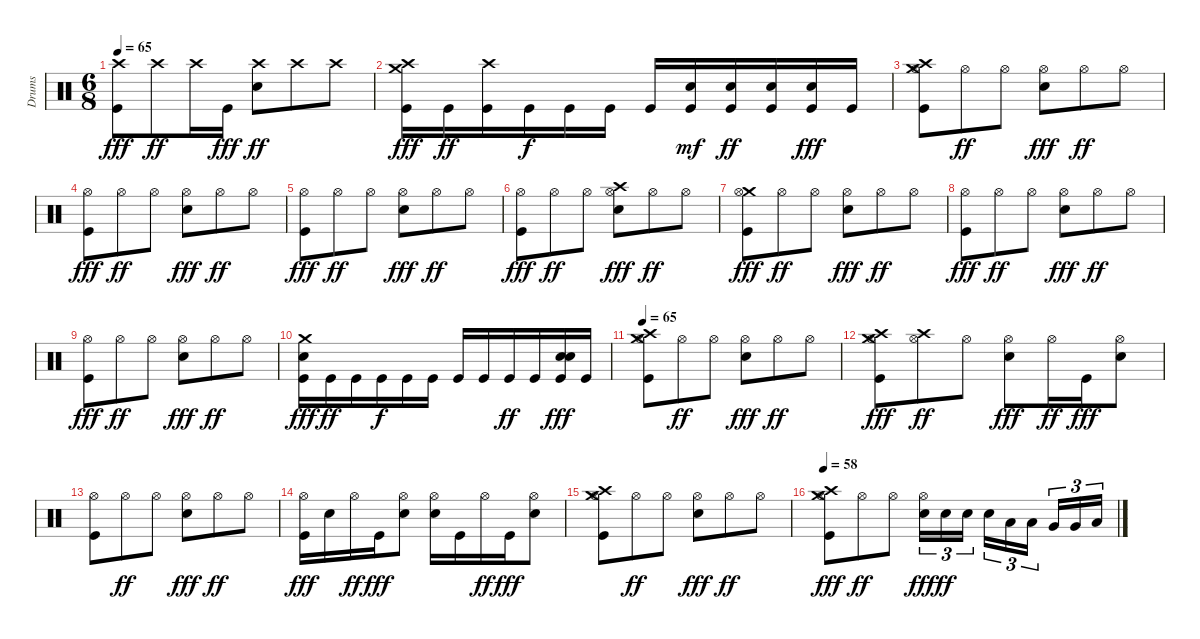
\track ("Drums" "Drums") {instrument percussion}
\staff {score}
\articulation defaults
\ts (6 8)
\tempo 65
\clef neutral
\ks c
("Crash high (hit)" "Kick (hit)").8{dy fff} "Crash high (hit)".8{dy ff} "Crash high (hit)".16 "Kick (hit)".16{dy fff} ("Crash high (hit)" "Snare (hit) 2").8{dy ff} "Crash high (hit)".8 "Crash high (hit)".8 |
("Crash medium (hit)" "Crash high (hit)" "Kick (hit)").16{dy fff} "Kick (hit)".16{dy ff} ("Crash high (hit)" "Kick (hit)").16 "Kick (hit)".16{dy f} "Kick (hit)".16 "Kick (hit)".16 "Kick (hit)".16 ("Snare (hit) 2" "Kick (hit)").16{dy mf} ("Snare (hit) 2" "Kick (hit)").16{dy ff} ("Snare (hit) 2" "Kick (hit)").16 ("Snare (hit) 2" "Kick (hit)").16{dy fff} "Kick (hit)".16 |
("Crash medium (hit)" "Crash high (hit)" "Hi-Hat (open)" "Kick (hit)").8 "Hi-Hat (open)".8{dy ff} "Hi-Hat (open)".8 ("Hi-Hat (open)" "Snare (hit) 2").8{dy fff} "Hi-Hat (open)".8{dy ff} "Hi-Hat (open)".8 |
("Hi-Hat (open)" "Kick (hit)").8{dy fff} "Hi-Hat (open)".8{dy ff} "Hi-Hat (open)".8 ("Hi-Hat (open)" "Snare (hit) 2").8{dy fff} "Hi-Hat (open)".8{dy ff} "Hi-Hat (open)".8 |
("Hi-Hat (open)" "Kick (hit)").8{dy fff} "Hi-Hat (open)".8{dy ff} "Hi-Hat (open)".8 ("Hi-Hat (open)" "Snare (hit) 2").8{dy fff} "Hi-Hat (open)".8{dy ff} "Hi-Hat (open)".8 |
("Hi-Hat (open)" "Kick (hit)").8{dy fff} "Hi-Hat (open)".8{dy ff} "Hi-Hat (open)".8 ("Crash high (hit)" "Hi-Hat (open)" "Snare (hit) 2").8{dy fff} "Hi-Hat (open)".8{dy ff} "Hi-Hat (open)".8 |
("Crash medium (hit)" "Hi-Hat (open)" "Kick (hit)").8{dy fff} "Hi-Hat (open)".8{dy ff} "Hi-Hat (open)".8 ("Hi-Hat (open)" "Snare (hit) 2").8{dy fff} "Hi-Hat (open)".8{dy ff} "Hi-Hat (open)".8 |
("Hi-Hat (open)" "Kick (hit)").8{dy fff} "Hi-Hat (open)".8{dy ff} "Hi-Hat (open)".8 ("Hi-Hat (open)" "Snare (hit) 2").8{dy fff} "Hi-Hat (open)".8{dy ff} "Hi-Hat (open)".8 |
("Hi-Hat (open)" "Kick (hit)").8{dy fff} "Hi-Hat (open)".8{dy ff} "Hi-Hat (open)".8 ("Hi-Hat (open)" "Snare (hit) 2").8{dy fff} "Hi-Hat (open)".8{dy ff} "Hi-Hat (open)".8 |
("Crash medium (hit)" "Snare (hit) 2" "Kick (hit)").16{dy fff} "Kick (hit)".16{dy ff} "Kick (hit)".16 "Kick (hit)".16{dy f} "Kick (hit)".16 "Kick (hit)".16 "Kick (hit)".16 "Kick (hit)".16 "Kick (hit)".16{dy ff} "Kick (hit)".16 ("Snare (hit) 2" "Snare (hit) 2" "Kick (hit)").16{dy fff} "Kick (hit)".16 |
\tempo 65
("Crash medium (hit)" "Crash high (hit)" "Hi-Hat (open)" "Kick (hit)").8 "Hi-Hat (open)".8{dy ff} "Hi-Hat (open)".8 ("Hi-Hat (open)" "Snare (hit) 2").8{dy fff} "Hi-Hat (open)".8{dy ff} "Hi-Hat (open)".8 |
("Crash medium (hit)" "Crash high (hit)" "Hi-Hat (open)" "Kick (hit)").8{dy fff} ("Hi-Hat (open)" "Crash high (hit)").8{dy ff} "Hi-Hat (open)".8 ("Hi-Hat (open)" "Snare (hit) 2").8{dy fff} "Hi-Hat (open)".16{dy ff} "Kick (hit)".16{dy fff} ("Hi-Hat (open)" "Snare (hit) 2").8 |
("Hi-Hat (open)" "Kick (hit)").8 "Hi-Hat (open)".8{dy ff} "Hi-Hat (open)".8 ("Hi-Hat (open)" "Snare (hit) 2").8{dy fff} "Hi-Hat (open)".8{dy ff} "Hi-Hat (open)".8 |
("Hi-Hat (open)" "Kick (hit)").16{dy fff} "Snare (hit) 2".16 "Hi-Hat (open)".16{dy ff} "Kick (hit)".16{dy fff} ("Hi-Hat (open)" "Snare (hit) 2").8 ("Hi-Hat (open)" "Snare (hit) 2").16 "Kick (hit)".16 "Hi-Hat (open)".16{dy ff} "Kick (hit)".16{dy fff} ("Hi-Hat (open)" "Snare (hit) 2").8 |
("Crash medium (hit)" "Crash high (hit)" "Hi-Hat (open)" "Kick (hit)").8 "Hi-Hat (open)".8{dy ff} "Hi-Hat (open)".8 ("Hi-Hat (open)" "Snare (hit) 2").8{dy fff} "Hi-Hat (open)".8{dy ff} "Hi-Hat (open)".8 |
\tempo 58
("Crash medium (hit)" "Crash high (hit)" "Hi-Hat (open)" "Kick (hit)").8{dy fff} "Hi-Hat (open)".8{dy ff} "Hi-Hat (open)".8 ("Hi-Hat (open)" "Snare (hit) 2").16{tu (3 2) dy fff} "Snare (hit) 2".16{tu (3 2) dy ff} "Snare (hit) 2".16{tu (3 2)} "Snare (hit) 2".16{tu (3 2)} "Low Tom (hit)".16{tu (3 2)} "Low Tom (hit)".16{tu (3 2)} "Very Low Tom (hit)".16{tu (3 2)} "Very Low Tom (hit)".16{tu (3 2)} "Low Floor Tom (hit)".16{tu (3 2)}
